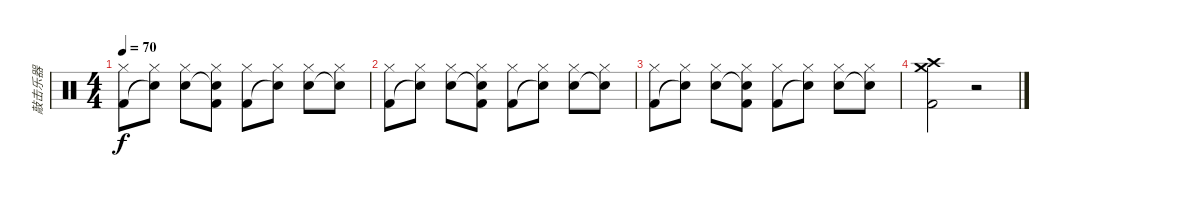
\track ("敲击乐器" "敲击乐器") {instrument percussion}
\staff {score}
\articulation defaults
\ts (4 4)
\tempo 70
\clef neutral
\ks c
("Hi-Hat (closed)" "Kick (hit) 2").8{dy f} ("Hi-Hat (closed)" "Snare (hit)"{t}).8 ("Hi-Hat (closed)" "Snare (hit) 2").8 ("Hi-Hat (closed)" "Snare (hit)"{t} "Kick (hit) 2").8 ("Hi-Hat (closed)" "Kick (hit) 2").8 ("Hi-Hat (closed)" "Snare (hit)"{t}).8 ("Hi-Hat (closed)" "Snare (hit) 2").8 ("Hi-Hat (closed)" "Snare (hit)"{t}).8 |
("Hi-Hat (closed)" "Kick (hit) 2").8 ("Hi-Hat (closed)" "Snare (hit)"{t}).8 ("Hi-Hat (closed)" "Snare (hit) 2").8 ("Hi-Hat (closed)" "Snare (hit)"{t} "Kick (hit) 2").8 ("Hi-Hat (closed)" "Kick (hit) 2").8 ("Hi-Hat (closed)" "Snare (hit)"{t}).8 ("Hi-Hat (closed)" "Snare (hit) 2").8 ("Hi-Hat (closed)" "Snare (hit)"{t}).8 |
("Hi-Hat (closed)" "Kick (hit) 2").8 ("Hi-Hat (closed)" "Snare (hit)"{t}).8 ("Hi-Hat (closed)" "Snare (hit) 2").8 ("Hi-Hat (closed)" "Snare (hit)"{t} "Kick (hit) 2").8 ("Hi-Hat (closed)" "Kick (hit) 2").8 ("Hi-Hat (closed)" "Snare (hit)"{t}).8 ("Hi-Hat (closed)" "Snare (hit) 2").8 ("Hi-Hat (closed)" "Snare (hit)"{t}).8 |
("Crash high (hit)" "Crash medium (hit)" "Kick (hit) 2").2 r.2
